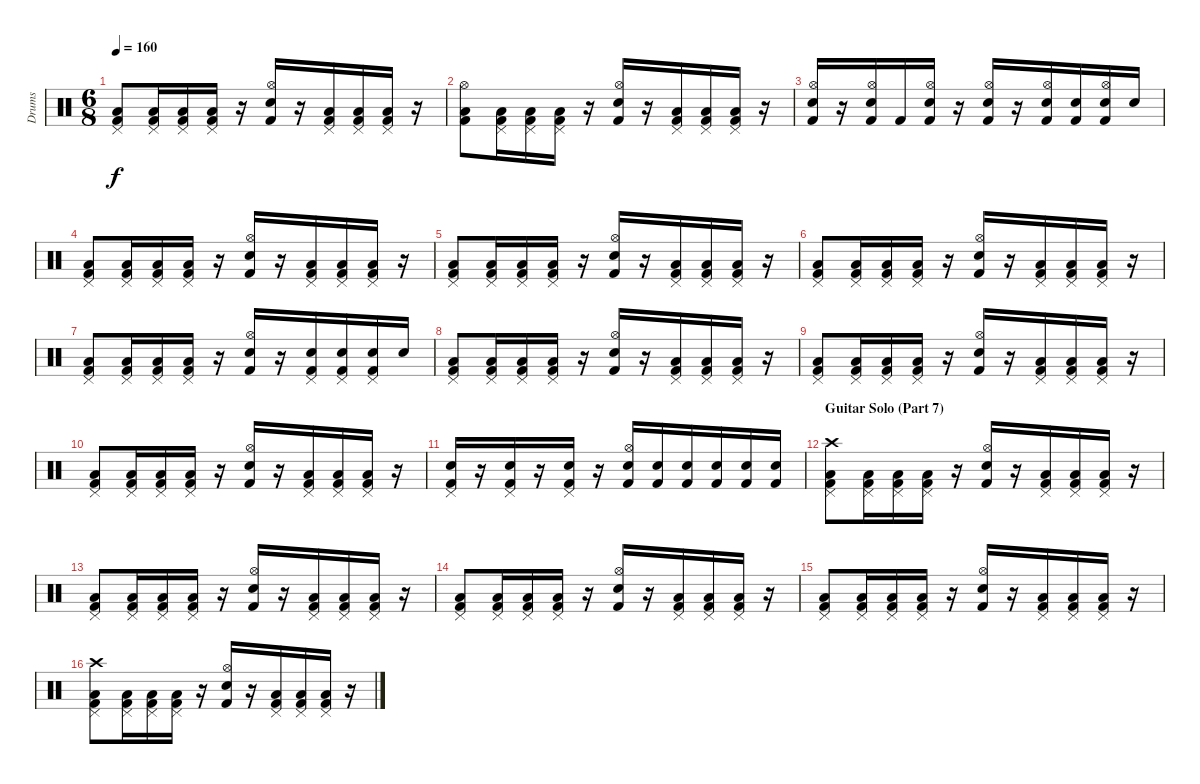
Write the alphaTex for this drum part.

\track ("Drums" "Drums") {instrument percussion}
\staff {score}
\articulation defaults
\ts (6 8)
\tempo 160
\clef neutral
\ks c
("Pedal Hi-Hat (hit)" "Low Floor Tom (hit)" "Kick (hit) 2").8{dy f} ("Pedal Hi-Hat (hit)" "Low Floor Tom (hit)" "Kick (hit) 2").16 ("Pedal Hi-Hat (hit)" "Low Floor Tom (hit)" "Kick (hit) 2").16 ("Pedal Hi-Hat (hit)" "Low Floor Tom (hit)" "Kick (hit) 2").16 r.16 ("Hi-Hat (open)" "Snare (hit) 2" "Kick (hit) 2").16 r.16 ("Pedal Hi-Hat (hit)" "Low Floor Tom (hit)" "Kick (hit) 2").16 ("Pedal Hi-Hat (hit)" "Low Floor Tom (hit)" "Kick (hit) 2").16 ("Pedal Hi-Hat (hit)" "Low Floor Tom (hit)" "Kick (hit) 2").16 r.16 |
("Hi-Hat (open)" "Low Floor Tom (hit)" "Kick (hit) 2").8 ("Pedal Hi-Hat (hit)" "Low Floor Tom (hit)" "Kick (hit) 2").16 ("Pedal Hi-Hat (hit)" "Low Floor Tom (hit)" "Kick (hit) 2").16 ("Pedal Hi-Hat (hit)" "Low Floor Tom (hit)" "Kick (hit) 2").16 r.16 ("Hi-Hat (open)" "Snare (hit) 2" "Kick (hit) 2").16 r.16 ("Pedal Hi-Hat (hit)" "Low Floor Tom (hit)" "Kick (hit) 2").16 ("Pedal Hi-Hat (hit)" "Low Floor Tom (hit)" "Kick (hit) 2").16 ("Pedal Hi-Hat (hit)" "Low Floor Tom (hit)" "Kick (hit) 2").16 r.16 |
("Hi-Hat (open)" "Electric Snare (hit)" "Kick (hit) 2").16 r.16 ("Hi-Hat (open)" "Electric Snare (hit)" "Kick (hit) 2").16 "Kick (hit) 2".16 ("Hi-Hat (open)" "Electric Snare (hit)" "Kick (hit) 2").16 r.16 ("Hi-Hat (open)" "Snare (hit) 2" "Kick (hit) 2").16 r.16 ("Hi-Hat (open)" "Electric Snare (hit)" "Kick (hit) 2").16 ("Electric Snare (hit)" "Kick (hit) 2").16 ("Hi-Hat (open)" "Electric Snare (hit)" "Kick (hit) 2").16 "Electric Snare (hit)".16 |
("Pedal Hi-Hat (hit)" "Low Floor Tom (hit)" "Kick (hit) 2").8 ("Pedal Hi-Hat (hit)" "Low Floor Tom (hit)" "Kick (hit) 2").16 ("Pedal Hi-Hat (hit)" "Low Floor Tom (hit)" "Kick (hit) 2").16 ("Pedal Hi-Hat (hit)" "Low Floor Tom (hit)" "Kick (hit) 2").16 r.16 ("Hi-Hat (open)" "Snare (hit) 2" "Kick (hit) 2").16 r.16 ("Pedal Hi-Hat (hit)" "Low Floor Tom (hit)" "Kick (hit) 2").16 ("Pedal Hi-Hat (hit)" "Low Floor Tom (hit)" "Kick (hit) 2").16 ("Pedal Hi-Hat (hit)" "Low Floor Tom (hit)" "Kick (hit) 2").16 r.16 |
("Pedal Hi-Hat (hit)" "Low Floor Tom (hit)" "Kick (hit) 2").8 ("Pedal Hi-Hat (hit)" "Low Floor Tom (hit)" "Kick (hit) 2").16 ("Pedal Hi-Hat (hit)" "Low Floor Tom (hit)" "Kick (hit) 2").16 ("Pedal Hi-Hat (hit)" "Low Floor Tom (hit)" "Kick (hit) 2").16 r.16 ("Hi-Hat (open)" "Snare (hit) 2" "Kick (hit) 2").16 r.16 ("Pedal Hi-Hat (hit)" "Low Floor Tom (hit)" "Kick (hit) 2").16 ("Pedal Hi-Hat (hit)" "Low Floor Tom (hit)" "Kick (hit) 2").16 ("Pedal Hi-Hat (hit)" "Low Floor Tom (hit)" "Kick (hit) 2").16 r.16 |
("Pedal Hi-Hat (hit)" "Low Floor Tom (hit)" "Kick (hit) 2").8 ("Pedal Hi-Hat (hit)" "Low Floor Tom (hit)" "Kick (hit) 2").16 ("Pedal Hi-Hat (hit)" "Low Floor Tom (hit)" "Kick (hit) 2").16 ("Pedal Hi-Hat (hit)" "Low Floor Tom (hit)" "Kick (hit) 2").16 r.16 ("Hi-Hat (open)" "Snare (hit) 2" "Kick (hit) 2").16 r.16 ("Pedal Hi-Hat (hit)" "Low Floor Tom (hit)" "Kick (hit) 2").16 ("Pedal Hi-Hat (hit)" "Low Floor Tom (hit)" "Kick (hit) 2").16 ("Pedal Hi-Hat (hit)" "Low Floor Tom (hit)" "Kick (hit) 2").16 r.16 |
("Pedal Hi-Hat (hit)" "Low Floor Tom (hit)" "Kick (hit) 2").8 ("Pedal Hi-Hat (hit)" "Low Floor Tom (hit)" "Kick (hit) 2").16 ("Pedal Hi-Hat (hit)" "Low Floor Tom (hit)" "Kick (hit) 2").16 ("Pedal Hi-Hat (hit)" "Low Floor Tom (hit)" "Kick (hit) 2").16 r.16 ("Hi-Hat (open)" "Snare (hit) 2" "Kick (hit) 2").16 r.16 ("Pedal Hi-Hat (hit)" "Electric Snare (hit)" "Kick (hit) 2").16 ("Pedal Hi-Hat (hit)" "Electric Snare (hit)" "Kick (hit) 2").16 ("Pedal Hi-Hat (hit)" "Electric Snare (hit)" "Kick (hit) 2").16 "Electric Snare (hit)".16 |
("Pedal Hi-Hat (hit)" "Low Floor Tom (hit)" "Kick (hit) 2").8 ("Pedal Hi-Hat (hit)" "Low Floor Tom (hit)" "Kick (hit) 2").16 ("Pedal Hi-Hat (hit)" "Low Floor Tom (hit)" "Kick (hit) 2").16 ("Pedal Hi-Hat (hit)" "Low Floor Tom (hit)" "Kick (hit) 2").16 r.16 ("Hi-Hat (open)" "Snare (hit) 2" "Kick (hit) 2").16 r.16 ("Pedal Hi-Hat (hit)" "Low Floor Tom (hit)" "Kick (hit) 2").16 ("Pedal Hi-Hat (hit)" "Low Floor Tom (hit)" "Kick (hit) 2").16 ("Pedal Hi-Hat (hit)" "Low Floor Tom (hit)" "Kick (hit) 2").16 r.16 |
("Pedal Hi-Hat (hit)" "Low Floor Tom (hit)" "Kick (hit) 2").8 ("Pedal Hi-Hat (hit)" "Low Floor Tom (hit)" "Kick (hit) 2").16 ("Pedal Hi-Hat (hit)" "Low Floor Tom (hit)" "Kick (hit) 2").16 ("Pedal Hi-Hat (hit)" "Low Floor Tom (hit)" "Kick (hit) 2").16 r.16 ("Hi-Hat (open)" "Snare (hit) 2" "Kick (hit) 2").16 r.16 ("Pedal Hi-Hat (hit)" "Low Floor Tom (hit)" "Kick (hit) 2").16 ("Pedal Hi-Hat (hit)" "Low Floor Tom (hit)" "Kick (hit) 2").16 ("Pedal Hi-Hat (hit)" "Low Floor Tom (hit)" "Kick (hit) 2").16 r.16 |
("Pedal Hi-Hat (hit)" "Low Floor Tom (hit)" "Kick (hit) 2").8 ("Pedal Hi-Hat (hit)" "Low Floor Tom (hit)" "Kick (hit) 2").16 ("Pedal Hi-Hat (hit)" "Low Floor Tom (hit)" "Kick (hit) 2").16 ("Pedal Hi-Hat (hit)" "Low Floor Tom (hit)" "Kick (hit) 2").16 r.16 ("Hi-Hat (open)" "Snare (hit) 2" "Kick (hit) 2").16 r.16 ("Pedal Hi-Hat (hit)" "Low Floor Tom (hit)" "Kick (hit) 2").16 ("Pedal Hi-Hat (hit)" "Low Floor Tom (hit)" "Kick (hit) 2").16 ("Pedal Hi-Hat (hit)" "Low Floor Tom (hit)" "Kick (hit) 2").16 r.16 |
("Pedal Hi-Hat (hit)" "Electric Snare (hit)" "Kick (hit) 2").16 r.16 ("Pedal Hi-Hat (hit)" "Electric Snare (hit)" "Kick (hit) 2").16 r.16 ("Pedal Hi-Hat (hit)" "Electric Snare (hit)" "Kick (hit) 2").16 r.16 ("Hi-Hat (open)" "Electric Snare (hit)" "Kick (hit) 2").16 ("Electric Snare (hit)" "Kick (hit) 2").16 ("Electric Snare (hit)" "Kick (hit) 2").16 ("Electric Snare (hit)" "Kick (hit) 2").16 ("Electric Snare (hit)" "Kick (hit) 2").16 ("Electric Snare (hit)" "Kick (hit) 2").16 |
\section ("" "Guitar Solo (Part 7)")
("Crash high (hit)" "Pedal Hi-Hat (hit)" "Low Floor Tom (hit)" "Kick (hit) 2").8 ("Pedal Hi-Hat (hit)" "Low Floor Tom (hit)" "Kick (hit) 2").16 ("Pedal Hi-Hat (hit)" "Low Floor Tom (hit)" "Kick (hit) 2").16 ("Pedal Hi-Hat (hit)" "Low Floor Tom (hit)" "Kick (hit) 2").16 r.16 ("Hi-Hat (open)" "Snare (hit) 2" "Kick (hit) 2").16 r.16 ("Pedal Hi-Hat (hit)" "Low Floor Tom (hit)" "Kick (hit) 2").16 ("Pedal Hi-Hat (hit)" "Low Floor Tom (hit)" "Kick (hit) 2").16 ("Pedal Hi-Hat (hit)" "Low Floor Tom (hit)" "Kick (hit) 2").16 r.16 |
("Pedal Hi-Hat (hit)" "Low Floor Tom (hit)" "Kick (hit) 2").8 ("Pedal Hi-Hat (hit)" "Low Floor Tom (hit)" "Kick (hit) 2").16 ("Pedal Hi-Hat (hit)" "Low Floor Tom (hit)" "Kick (hit) 2").16 ("Pedal Hi-Hat (hit)" "Low Floor Tom (hit)" "Kick (hit) 2").16 r.16 ("Hi-Hat (open)" "Snare (hit) 2" "Kick (hit) 2").16 r.16 ("Pedal Hi-Hat (hit)" "Low Floor Tom (hit)" "Kick (hit) 2").16 ("Pedal Hi-Hat (hit)" "Low Floor Tom (hit)" "Kick (hit) 2").16 ("Pedal Hi-Hat (hit)" "Low Floor Tom (hit)" "Kick (hit) 2").16 r.16 |
("Pedal Hi-Hat (hit)" "Low Floor Tom (hit)" "Kick (hit) 2").8 ("Pedal Hi-Hat (hit)" "Low Floor Tom (hit)" "Kick (hit) 2").16 ("Pedal Hi-Hat (hit)" "Low Floor Tom (hit)" "Kick (hit) 2").16 ("Pedal Hi-Hat (hit)" "Low Floor Tom (hit)" "Kick (hit) 2").16 r.16 ("Hi-Hat (open)" "Snare (hit) 2" "Kick (hit) 2").16 r.16 ("Pedal Hi-Hat (hit)" "Low Floor Tom (hit)" "Kick (hit) 2").16 ("Pedal Hi-Hat (hit)" "Low Floor Tom (hit)" "Kick (hit) 2").16 ("Pedal Hi-Hat (hit)" "Low Floor Tom (hit)" "Kick (hit) 2").16 r.16 |
("Pedal Hi-Hat (hit)" "Low Floor Tom (hit)" "Kick (hit) 2").8 ("Pedal Hi-Hat (hit)" "Low Floor Tom (hit)" "Kick (hit) 2").16 ("Pedal Hi-Hat (hit)" "Low Floor Tom (hit)" "Kick (hit) 2").16 ("Pedal Hi-Hat (hit)" "Low Floor Tom (hit)" "Kick (hit) 2").16 r.16 ("Hi-Hat (open)" "Snare (hit) 2" "Kick (hit) 2").16 r.16 ("Pedal Hi-Hat (hit)" "Low Floor Tom (hit)" "Kick (hit) 2").16 ("Pedal Hi-Hat (hit)" "Low Floor Tom (hit)" "Kick (hit) 2").16 ("Pedal Hi-Hat (hit)" "Low Floor Tom (hit)" "Kick (hit) 2").16 r.16 |
("Crash high (hit)" "Pedal Hi-Hat (hit)" "Low Floor Tom (hit)" "Kick (hit) 2").8 ("Pedal Hi-Hat (hit)" "Low Floor Tom (hit)" "Kick (hit) 2").16 ("Pedal Hi-Hat (hit)" "Low Floor Tom (hit)" "Kick (hit) 2").16 ("Pedal Hi-Hat (hit)" "Low Floor Tom (hit)" "Kick (hit) 2").16 r.16 ("Hi-Hat (open)" "Snare (hit) 2" "Kick (hit) 2").16 r.16 ("Pedal Hi-Hat (hit)" "Low Floor Tom (hit)" "Kick (hit) 2").16 ("Pedal Hi-Hat (hit)" "Low Floor Tom (hit)" "Kick (hit) 2").16 ("Pedal Hi-Hat (hit)" "Low Floor Tom (hit)" "Kick (hit) 2").16 r.16
